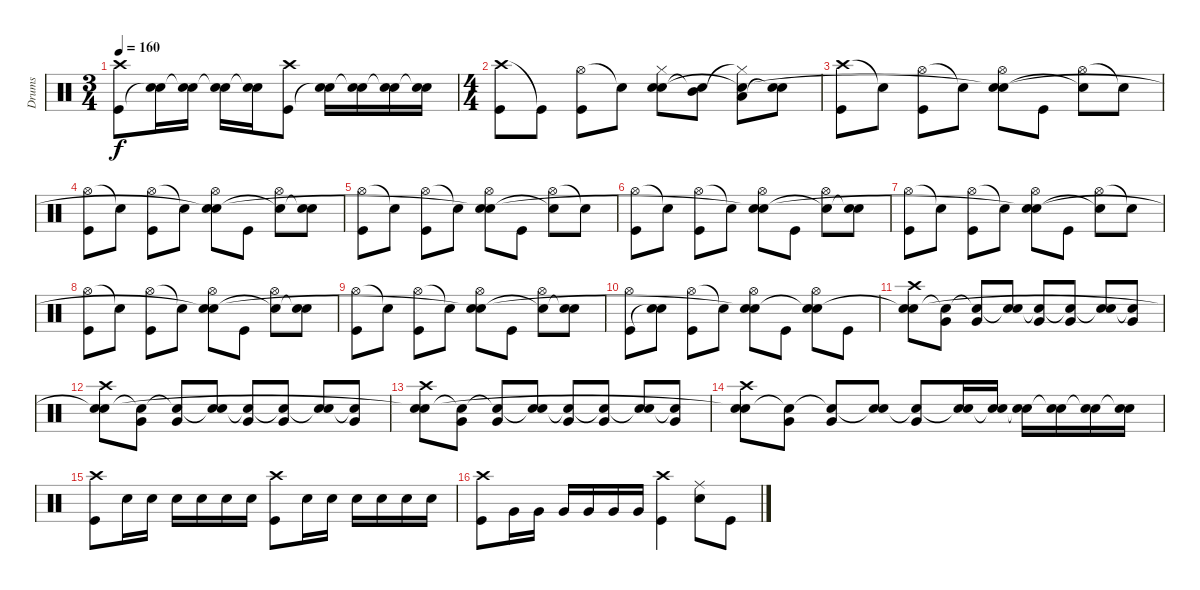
\track ("Drums" "Drums") {instrument percussion}
\staff {score}
\articulation defaults
\ts (3 4)
\tempo 160
\clef neutral
\ks c
("Crash high (hit)" "Kick (hit)").8{dy f} ("Snare (hit) 2" "Snare (hit)"{t}).16 ("Snare (hit) 2" "Snare (hit)"{t}).16 ("Snare (hit) 2" "Snare (hit)"{t}).16 ("Snare (hit) 2" "Snare (hit)"{t}).16 ("Crash high (hit)" "Kick (hit)").8 ("Electric Snare (hit)" "Snare (hit)"{t}).16 ("Electric Snare (hit)" "Snare (hit)"{t}).16 ("Electric Snare (hit)" "Snare (hit)"{t}).16 ("Electric Snare (hit)" "Snare (hit)"{t}).16 |
\ts (4 4)
("Crash high (hit)" "Kick (hit)").8 "Kick (hit)"{t}.8 ("Hi-Hat (open)" "Kick (hit)").8 "Snare (hit)"{t}.8 ("Hi-Hat (closed)" "Electric Snare (hit)" "Snare (hit)"{t}).8 ("Mid Tom (hit)" "Snare (hit)"{t}).8 ("Hi-Hat (closed)"{t} "Low Tom (hit)" "Snare (hit)"{t}).8 ("Snare (hit) 2" "Snare (hit)"{t}).8 |
("Crash high (hit)" "Kick (hit)").8 "Snare (hit)"{t}.8 ("Hi-Hat (open)" "Kick (hit)").8 "Snare (hit)"{t}.8 ("Hi-Hat (open)" "Electric Snare (hit)" "Snare (hit)"{t}).8 "Kick (hit)".8 ("Hi-Hat (open)" "Snare (hit)"{t}).8 "Snare (hit)"{t}.8 |
("Hi-Hat (open)" "Kick (hit)").8 "Snare (hit)"{t}.8 ("Hi-Hat (open)" "Kick (hit)").8 "Snare (hit)"{t}.8 ("Hi-Hat (open)" "Electric Snare (hit)" "Snare (hit)"{t}).8 "Kick (hit)".8 ("Hi-Hat (open)" "Snare (hit)"{t}).8 ("Electric Snare (hit)" "Snare (hit)"{t}).8 |
("Hi-Hat (open)" "Kick (hit)").8 "Snare (hit)"{t}.8 ("Hi-Hat (open)" "Kick (hit)").8 "Snare (hit)"{t}.8 ("Hi-Hat (open)" "Electric Snare (hit)" "Snare (hit)"{t}).8 "Kick (hit)".8 ("Hi-Hat (open)" "Snare (hit)"{t}).8 "Snare (hit)"{t}.8 |
("Hi-Hat (open)" "Kick (hit)").8 "Snare (hit)"{t}.8 ("Hi-Hat (open)" "Kick (hit)").8 "Snare (hit)"{t}.8 ("Hi-Hat (open)" "Electric Snare (hit)" "Snare (hit)"{t}).8 "Kick (hit)".8 ("Hi-Hat (open)" "Snare (hit)"{t}).8 ("Electric Snare (hit)" "Snare (hit)"{t}).8 |
("Hi-Hat (open)" "Kick (hit)").8 "Snare (hit)"{t}.8 ("Hi-Hat (open)" "Kick (hit)").8 "Snare (hit)"{t}.8 ("Hi-Hat (open)" "Electric Snare (hit)" "Snare (hit)"{t}).8 "Kick (hit)".8 ("Hi-Hat (open)" "Snare (hit)"{t}).8 "Snare (hit)"{t}.8 |
("Hi-Hat (open)" "Kick (hit)").8 "Snare (hit)"{t}.8 ("Hi-Hat (open)" "Kick (hit)").8 "Snare (hit)"{t}.8 ("Hi-Hat (open)" "Electric Snare (hit)" "Snare (hit)"{t}).8 "Kick (hit)".8 ("Hi-Hat (open)" "Snare (hit)"{t}).8 ("Electric Snare (hit)" "Snare (hit)"{t}).8 |
("Hi-Hat (open)" "Kick (hit)").8 "Snare (hit)"{t}.8 ("Hi-Hat (open)" "Kick (hit)").8 "Snare (hit)"{t}.8 ("Hi-Hat (open)" "Electric Snare (hit)" "Snare (hit)"{t}).8 "Kick (hit)".8 ("Hi-Hat (open)" "Snare (hit)"{t}).8 ("Snare (hit) 2" "Snare (hit)"{t}).8 |
("Hi-Hat (open)" "Kick (hit)").8 ("Electric Snare (hit)" "Snare (hit)"{t}).8 ("Hi-Hat (open)" "Kick (hit)").8 "Snare (hit)"{t}.8 ("Hi-Hat (open)" "Electric Snare (hit)" "Snare (hit)"{t}).8 "Kick (hit)".8 ("Hi-Hat (open)" "Electric Snare (hit)" "Snare (hit)"{t}).8 "Kick (hit)".8 |
("Crash high (hit)" "Electric Snare (hit)" "Snare (hit)"{t}).8 ("Very Low Tom (hit)" "Snare (hit)"{t}).8 ("Very Low Tom (hit)" "Snare (hit)"{t}).8 ("Electric Snare (hit)" "Snare (hit)"{t}).8 ("Very Low Tom (hit)" "Snare (hit)"{t}).8 ("Very Low Tom (hit)" "Snare (hit)"{t}).8 ("Electric Snare (hit)" "Snare (hit)"{t}).8 ("Very Low Tom (hit)" "Snare (hit)"{t}).8 |
("Crash high (hit)" "Electric Snare (hit)" "Snare (hit)"{t}).8 ("Very Low Tom (hit)" "Snare (hit)"{t}).8 ("Very Low Tom (hit)" "Snare (hit)"{t}).8 ("Electric Snare (hit)" "Snare (hit)"{t}).8 ("Very Low Tom (hit)" "Snare (hit)"{t}).8 ("Very Low Tom (hit)" "Snare (hit)"{t}).8 ("Electric Snare (hit)" "Snare (hit)"{t}).8 ("Very Low Tom (hit)" "Snare (hit)"{t}).8 |
("Crash high (hit)" "Electric Snare (hit)" "Snare (hit)"{t}).8 ("Very Low Tom (hit)" "Snare (hit)"{t}).8 ("Very Low Tom (hit)" "Snare (hit)"{t}).8 ("Electric Snare (hit)" "Snare (hit)"{t}).8 ("Very Low Tom (hit)" "Snare (hit)"{t}).8 ("Very Low Tom (hit)" "Snare (hit)"{t}).8 ("Electric Snare (hit)" "Snare (hit)"{t}).8 ("Very Low Tom (hit)" "Snare (hit)"{t}).8 |
("Crash high (hit)" "Electric Snare (hit)" "Snare (hit)"{t}).8 ("Very Low Tom (hit)" "Snare (hit)"{t}).8 ("Very Low Tom (hit)" "Snare (hit)"{t}).8 ("Electric Snare (hit)" "Snare (hit)"{t}).8 ("Very Low Tom (hit)" "Snare (hit)"{t}).8 ("Electric Snare (hit)" "Snare (hit)"{t}).16 ("Electric Snare (hit)" "Snare (hit)"{t}).16 ("Electric Snare (hit)" "Snare (hit)"{t}).16 ("Electric Snare (hit)" "Snare (hit)"{t}).16 ("Electric Snare (hit)" "Snare (hit)"{t}).16 ("Electric Snare (hit)" "Snare (hit)"{t}).16 |
("Crash high (hit)" "Kick (hit)").8 "Electric Snare (hit)".16 "Electric Snare (hit)".16 "Electric Snare (hit)".16 "Electric Snare (hit)".16 "Electric Snare (hit)".16 "Electric Snare (hit)".16 ("Crash high (hit)" "Kick (hit)").8 "Snare (hit) 2".16 "Snare (hit) 2".16 "Snare (hit) 2".16 "Snare (hit) 2".16 "Snare (hit) 2".16 "Snare (hit) 2".16 |
("Crash high (hit)" "Kick (hit)").8 "Very Low Tom (hit)".16 "Very Low Tom (hit)".16 "Very Low Tom (hit)".16 "Very Low Tom (hit)".16 "Very Low Tom (hit)".16 "Very Low Tom (hit)".16 ("Crash high (hit)" "Kick (hit)").4 ("Ride (middle)" "Electric Snare (hit)").8 "Kick (hit)".8
